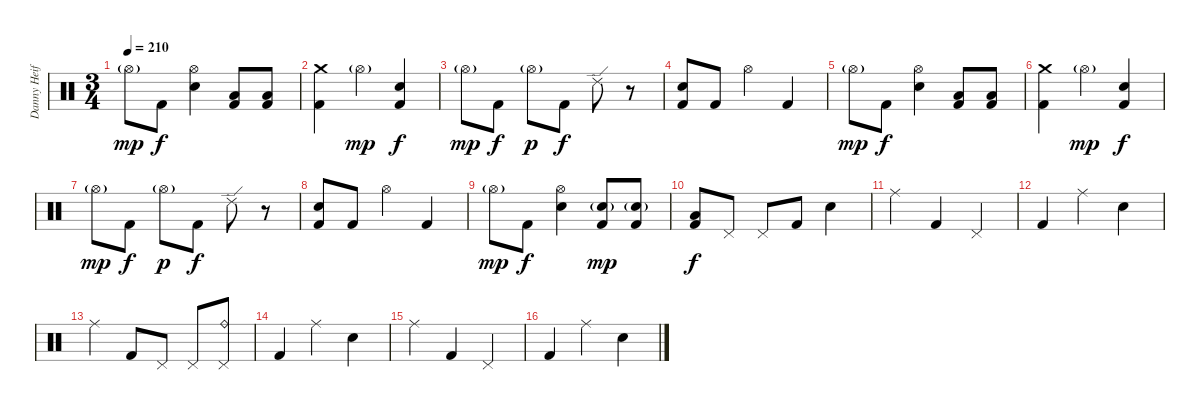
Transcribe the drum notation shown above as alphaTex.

\track ("Danny Heifetz - Drums" "Danny Heif") {instrument percussion}
\staff {score}
\articulation defaults
\ts (3 4)
\tempo 210
\clef neutral
\ks c "Hi-Hat (open)"{g}.8{dy mp} "Kick (hit) 2".8{dy f}
("Hi-Hat (open)" "Electric Snare (hit)").4 ("Low Floor Tom (hit)" "Kick (hit) 2").8 ("Low Floor Tom (hit)" "Kick (hit) 2").8 |
("Crash medium (hit)" "Kick (hit) 2").4 "Hi-Hat (open)"{g}.4{dy mp} ("Electric Snare (hit)" "Kick (hit) 2").4{dy f} |
"Hi-Hat (open)"{g}.8{dy mp} "Kick (hit) 2".8{dy f} "Hi-Hat (open)"{g}.8{dy p} "Kick (hit) 2".8{dy f} "Ride (edge) 2".8 r.8 |
("Electric Snare (hit)" "Kick (hit) 2").8 "Kick (hit) 2".8 "Hi-Hat (open)".4 "Kick (hit) 2".4 |
"Hi-Hat (open)"{g}.8{dy mp} "Kick (hit) 2".8{dy f} ("Hi-Hat (open)" "Electric Snare (hit)").4 ("Low Floor Tom (hit)" "Kick (hit) 2").8 ("Low Floor Tom (hit)" "Kick (hit) 2").8 |
("Crash medium (hit)" "Kick (hit) 2").4 "Hi-Hat (open)"{g}.4{dy mp} ("Electric Snare (hit)" "Kick (hit) 2").4{dy f} |
"Hi-Hat (open)"{g}.8{dy mp} "Kick (hit) 2".8{dy f} "Hi-Hat (open)"{g}.8{dy p} "Kick (hit) 2".8{dy f} "Ride (edge) 2".8 r.8 |
("Electric Snare (hit)" "Kick (hit) 2").8 "Kick (hit) 2".8 "Hi-Hat (open)".4 "Kick (hit) 2".4 |
"Hi-Hat (open)"{g}.8{dy mp} "Kick (hit) 2".8{dy f} ("Hi-Hat (open)" "Electric Snare (hit)").4 ("Electric Snare (hit)"{g} "Kick (hit) 2").8{dy mp} ("Electric Snare (hit)"{g} "Kick (hit) 2").8 |
("Low Tom (hit)" "Kick (hit) 2").8{dy f} "Pedal Hi-Hat (hit)".8 "Pedal Hi-Hat (hit)".8 "Kick (hit) 2".8 "Electric Snare (hit)".4 |
"Ride (middle)".4 "Kick (hit) 2".4 "Pedal Hi-Hat (hit)".4 |
"Kick (hit) 2".4 "Ride (middle)".4 "Electric Snare (hit)".4 |
"Ride (middle)".4 "Kick (hit) 2".8 "Pedal Hi-Hat (hit)".8 "Pedal Hi-Hat (hit)".8 ("Ride (bell)" "Pedal Hi-Hat (hit)").8 |
"Kick (hit) 2".4 "Ride (middle)".4 "Electric Snare (hit)".4 |
"Ride (middle)".4 "Kick (hit) 2".4 "Pedal Hi-Hat (hit)".4 |
"Kick (hit) 2".4 "Ride (middle)".4 "Electric Snare (hit)".4
